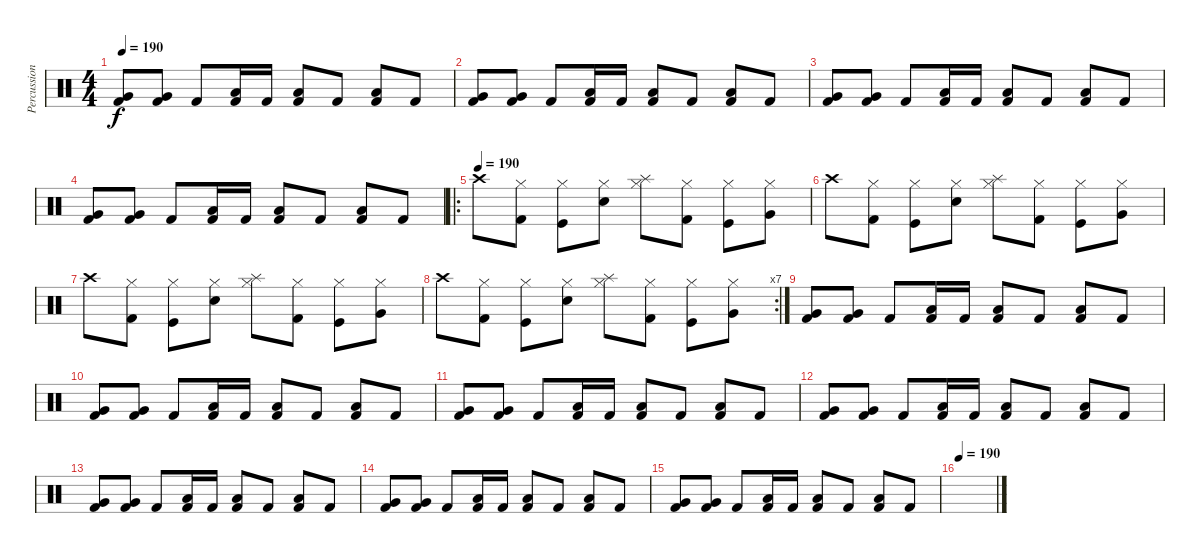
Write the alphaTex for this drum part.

\track ("Percussions" "Percussion") {instrument percussion}
\staff {score}
\articulation defaults
\ts (4 4)
\tempo 190
\clef neutral
\ks c
("Kick (hit) 2" "Very Low Tom (hit)").8{dy f} ("Kick (hit) 2" "Very Low Tom (hit)").8 "Kick (hit) 2".8 ("Low Tom (hit)" "Kick (hit) 2").16 "Kick (hit) 2".16 ("Low Tom (hit)" "Kick (hit) 2").8 "Kick (hit) 2".8 ("Low Tom (hit)" "Kick (hit) 2").8 "Kick (hit) 2".8 |
("Kick (hit) 2" "Very Low Tom (hit)").8 ("Kick (hit) 2" "Very Low Tom (hit)").8 "Kick (hit) 2".8 ("Low Tom (hit)" "Kick (hit) 2").16 "Kick (hit) 2".16 ("Low Tom (hit)" "Kick (hit) 2").8 "Kick (hit) 2".8 ("Low Tom (hit)" "Kick (hit) 2").8 "Kick (hit) 2".8 |
("Kick (hit) 2" "Very Low Tom (hit)").8 ("Kick (hit) 2" "Very Low Tom (hit)").8 "Kick (hit) 2".8 ("Low Tom (hit)" "Kick (hit) 2").16 "Kick (hit) 2".16 ("Low Tom (hit)" "Kick (hit) 2").8 "Kick (hit) 2".8 ("Low Tom (hit)" "Kick (hit) 2").8 "Kick (hit) 2".8 |
("Kick (hit) 2" "Very Low Tom (hit)").8 ("Kick (hit) 2" "Very Low Tom (hit)").8 "Kick (hit) 2".8 ("Low Tom (hit)" "Kick (hit) 2").16 "Kick (hit) 2".16 ("Low Tom (hit)" "Kick (hit) 2").8 "Kick (hit) 2".8 ("Low Tom (hit)" "Kick (hit) 2").8 "Kick (hit) 2".8 |
\ro
\tempo (190)
"Crash high (hit)".8 ("Hi-Hat (closed)" "Kick (hit) 2").8 ("Hi-Hat (closed)" "Kick (hit)").8 ("Hi-Hat (closed)" "Snare (hit) 2").8 ("Hi-Hat (closed)" "Splash (hit)").8 ("Hi-Hat (closed)" "Kick (hit) 2").8 ("Hi-Hat (closed)" "Kick (hit)").8 ("Hi-Hat (closed)" "Very Low Tom (hit)").8 |
"Crash high (hit)".8 ("Hi-Hat (closed)" "Kick (hit) 2").8 ("Hi-Hat (closed)" "Kick (hit)").8 ("Hi-Hat (closed)" "Snare (hit) 2").8 ("Hi-Hat (closed)" "Splash (hit)").8 ("Hi-Hat (closed)" "Kick (hit) 2").8 ("Hi-Hat (closed)" "Kick (hit)").8 ("Hi-Hat (closed)" "Very Low Tom (hit)").8 |
"Crash high (hit)".8 ("Hi-Hat (closed)" "Kick (hit) 2").8 ("Hi-Hat (closed)" "Kick (hit)").8 ("Hi-Hat (closed)" "Snare (hit) 2").8 ("Hi-Hat (closed)" "Splash (hit)").8 ("Hi-Hat (closed)" "Kick (hit) 2").8 ("Hi-Hat (closed)" "Kick (hit)").8 ("Hi-Hat (closed)" "Very Low Tom (hit)").8 |
\rc 7 "Crash high (hit)".8
("Hi-Hat (closed)" "Kick (hit) 2").8 ("Hi-Hat (closed)" "Kick (hit)").8 ("Hi-Hat (closed)" "Snare (hit) 2").8 ("Hi-Hat (closed)" "Splash (hit)").8 ("Hi-Hat (closed)" "Kick (hit) 2").8 ("Hi-Hat (closed)" "Kick (hit)").8 ("Hi-Hat (closed)" "Very Low Tom (hit)").8 |
("Kick (hit) 2" "Very Low Tom (hit)").8 ("Kick (hit) 2" "Very Low Tom (hit)").8 "Kick (hit) 2".8 ("Low Tom (hit)" "Kick (hit) 2").16 "Kick (hit) 2".16 ("Low Tom (hit)" "Kick (hit) 2").8 "Kick (hit) 2".8 ("Low Tom (hit)" "Kick (hit) 2").8 "Kick (hit) 2".8 |
("Kick (hit) 2" "Very Low Tom (hit)").8 ("Kick (hit) 2" "Very Low Tom (hit)").8 "Kick (hit) 2".8 ("Low Tom (hit)" "Kick (hit) 2").16 "Kick (hit) 2".16 ("Low Tom (hit)" "Kick (hit) 2").8 "Kick (hit) 2".8 ("Low Tom (hit)" "Kick (hit) 2").8 "Kick (hit) 2".8 |
("Kick (hit) 2" "Very Low Tom (hit)").8 ("Kick (hit) 2" "Very Low Tom (hit)").8 "Kick (hit) 2".8 ("Low Tom (hit)" "Kick (hit) 2").16 "Kick (hit) 2".16 ("Low Tom (hit)" "Kick (hit) 2").8 "Kick (hit) 2".8 ("Low Tom (hit)" "Kick (hit) 2").8 "Kick (hit) 2".8 |
("Kick (hit) 2" "Very Low Tom (hit)").8 ("Kick (hit) 2" "Very Low Tom (hit)").8 "Kick (hit) 2".8 ("Low Tom (hit)" "Kick (hit) 2").16 "Kick (hit) 2".16 ("Low Tom (hit)" "Kick (hit) 2").8 "Kick (hit) 2".8 ("Low Tom (hit)" "Kick (hit) 2").8 "Kick (hit) 2".8 |
("Kick (hit) 2" "Very Low Tom (hit)").8 ("Kick (hit) 2" "Very Low Tom (hit)").8 "Kick (hit) 2".8 ("Low Tom (hit)" "Kick (hit) 2").16 "Kick (hit) 2".16 ("Low Tom (hit)" "Kick (hit) 2").8 "Kick (hit) 2".8 ("Low Tom (hit)" "Kick (hit) 2").8 "Kick (hit) 2".8 |
("Kick (hit) 2" "Very Low Tom (hit)").8 ("Kick (hit) 2" "Very Low Tom (hit)").8 "Kick (hit) 2".8 ("Low Tom (hit)" "Kick (hit) 2").16 "Kick (hit) 2".16 ("Low Tom (hit)" "Kick (hit) 2").8 "Kick (hit) 2".8 ("Low Tom (hit)" "Kick (hit) 2").8 "Kick (hit) 2".8 |
("Kick (hit) 2" "Very Low Tom (hit)").8 ("Kick (hit) 2" "Very Low Tom (hit)").8 "Kick (hit) 2".8 ("Low Tom (hit)" "Kick (hit) 2").16 "Kick (hit) 2".16 ("Low Tom (hit)" "Kick (hit) 2").8 "Kick (hit) 2".8 ("Low Tom (hit)" "Kick (hit) 2").8 "Kick (hit) 2".8 |
\tempo 190
